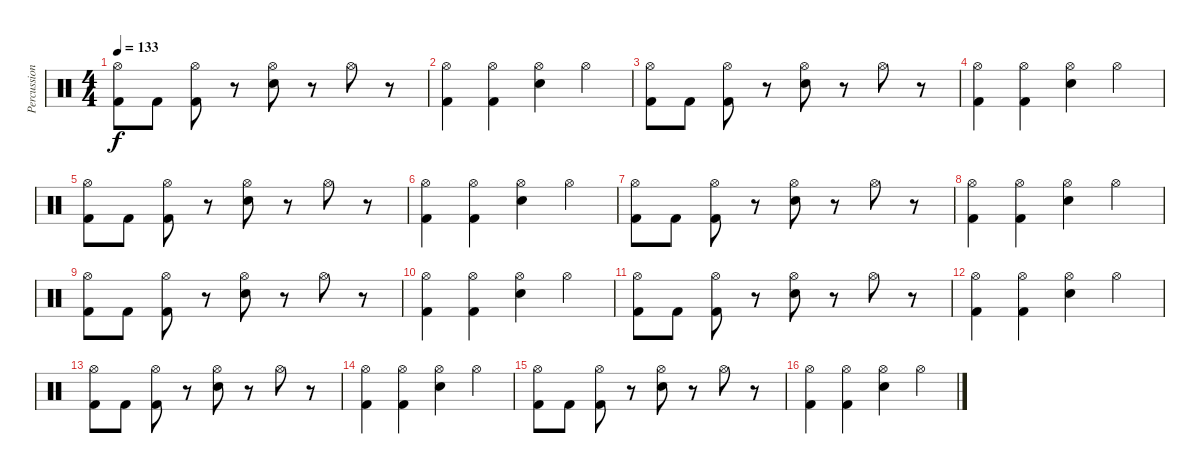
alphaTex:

\track ("Percussion" "Percussion") {instrument percussion}
\staff {score}
\articulation defaults
\ts (4 4)
\tempo 133
\clef neutral
\ks c
("Hi-Hat (open)" "Kick (hit) 2").8{dy f} "Kick (hit) 2".8 ("Hi-Hat (open)" "Kick (hit) 2").8 r.8 ("Hi-Hat (open)" "Electric Snare (hit)").8 r.8 "Hi-Hat (open)".8 r.8 |
("Hi-Hat (open)" "Kick (hit) 2").4 ("Hi-Hat (open)" "Kick (hit) 2").4 ("Hi-Hat (open)" "Snare (hit) 2").4 "Hi-Hat (open)".4 |
("Hi-Hat (open)" "Kick (hit) 2").8 "Kick (hit) 2".8 ("Hi-Hat (open)" "Kick (hit) 2").8 r.8 ("Hi-Hat (open)" "Electric Snare (hit)").8 r.8 "Hi-Hat (open)".8 r.8 |
("Hi-Hat (open)" "Kick (hit) 2").4 ("Hi-Hat (open)" "Kick (hit) 2").4 ("Hi-Hat (open)" "Snare (hit) 2").4 "Hi-Hat (open)".4 |
("Hi-Hat (open)" "Kick (hit) 2").8 "Kick (hit) 2".8 ("Hi-Hat (open)" "Kick (hit) 2").8 r.8 ("Hi-Hat (open)" "Electric Snare (hit)").8 r.8 "Hi-Hat (open)".8 r.8 |
("Hi-Hat (open)" "Kick (hit) 2").4 ("Hi-Hat (open)" "Kick (hit) 2").4 ("Hi-Hat (open)" "Snare (hit) 2").4 "Hi-Hat (open)".4 |
("Hi-Hat (open)" "Kick (hit) 2").8 "Kick (hit) 2".8 ("Hi-Hat (open)" "Kick (hit) 2").8 r.8 ("Hi-Hat (open)" "Electric Snare (hit)").8 r.8 "Hi-Hat (open)".8 r.8 |
("Hi-Hat (open)" "Kick (hit) 2").4 ("Hi-Hat (open)" "Kick (hit) 2").4 ("Hi-Hat (open)" "Snare (hit) 2").4 "Hi-Hat (open)".4 |
("Hi-Hat (open)" "Kick (hit) 2").8 "Kick (hit) 2".8 ("Hi-Hat (open)" "Kick (hit) 2").8 r.8 ("Hi-Hat (open)" "Electric Snare (hit)").8 r.8 "Hi-Hat (open)".8 r.8 |
("Hi-Hat (open)" "Kick (hit) 2").4 ("Hi-Hat (open)" "Kick (hit) 2").4 ("Hi-Hat (open)" "Snare (hit) 2").4 "Hi-Hat (open)".4 |
("Hi-Hat (open)" "Kick (hit) 2").8 "Kick (hit) 2".8 ("Hi-Hat (open)" "Kick (hit) 2").8 r.8 ("Hi-Hat (open)" "Electric Snare (hit)").8 r.8 "Hi-Hat (open)".8 r.8 |
("Hi-Hat (open)" "Kick (hit) 2").4 ("Hi-Hat (open)" "Kick (hit) 2").4 ("Hi-Hat (open)" "Snare (hit) 2").4 "Hi-Hat (open)".4 |
("Hi-Hat (open)" "Kick (hit) 2").8 "Kick (hit) 2".8 ("Hi-Hat (open)" "Kick (hit) 2").8 r.8 ("Hi-Hat (open)" "Electric Snare (hit)").8 r.8 "Hi-Hat (open)".8 r.8 |
("Hi-Hat (open)" "Kick (hit) 2").4 ("Hi-Hat (open)" "Kick (hit) 2").4 ("Hi-Hat (open)" "Snare (hit) 2").4 "Hi-Hat (open)".4 |
("Hi-Hat (open)" "Kick (hit) 2").8 "Kick (hit) 2".8 ("Hi-Hat (open)" "Kick (hit) 2").8 r.8 ("Hi-Hat (open)" "Electric Snare (hit)").8 r.8 "Hi-Hat (open)".8 r.8 |
("Hi-Hat (open)" "Kick (hit) 2").4 ("Hi-Hat (open)" "Kick (hit) 2").4 ("Hi-Hat (open)" "Snare (hit) 2").4 "Hi-Hat (open)".4
